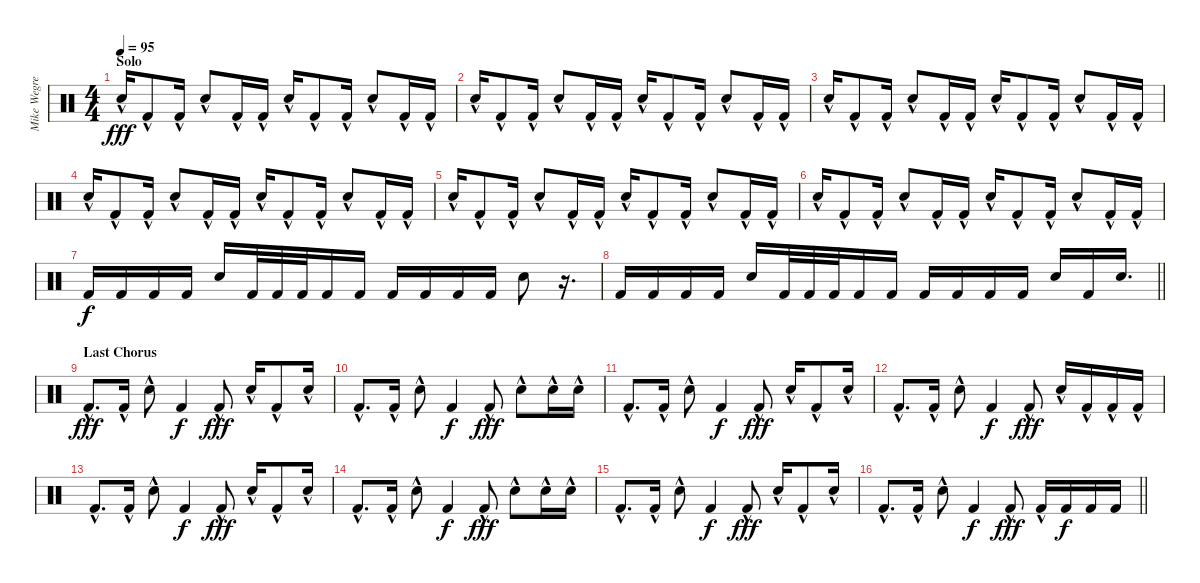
\track ("Mike Wegren 2" "Mike Wegre") {instrument percussion}
\staff {score}
\articulation defaults
\ts (4 4)
\section ("" "Solo")
\tempo 95
\clef neutral
\ks c "Snare (hit) 2"{hac}.16{dy fff} "Kick (hit) 2"{hac}.8 "Kick (hit) 2"{hac}.16 "Snare (hit) 2"{hac}.8 "Kick (hit) 2"{hac}.16 "Kick (hit) 2"{hac}.16 "Snare (hit) 2"{hac}.16 "Kick (hit) 2"{hac}.8 "Kick (hit) 2"{hac}.16 "Snare (hit) 2"{hac}.8 "Kick (hit) 2"{hac}.16 "Kick (hit) 2"{hac}.16
|
"Snare (hit) 2"{hac}.16 "Kick (hit) 2"{hac}.8 "Kick (hit) 2"{hac}.16 "Snare (hit) 2"{hac}.8 "Kick (hit) 2"{hac}.16 "Kick (hit) 2"{hac}.16 "Snare (hit) 2"{hac}.16 "Kick (hit) 2"{hac}.8 "Kick (hit) 2"{hac}.16 "Snare (hit) 2"{hac}.8 "Kick (hit) 2"{hac}.16 "Kick (hit) 2"{hac}.16 |
"Snare (hit) 2"{hac}.16 "Kick (hit) 2"{hac}.8 "Kick (hit) 2"{hac}.16 "Snare (hit) 2"{hac}.8 "Kick (hit) 2"{hac}.16 "Kick (hit) 2"{hac}.16 "Snare (hit) 2"{hac}.16 "Kick (hit) 2"{hac}.8 "Kick (hit) 2"{hac}.16 "Snare (hit) 2"{hac}.8 "Kick (hit) 2"{hac}.16 "Kick (hit) 2"{hac}.16 |
"Snare (hit) 2"{hac}.16 "Kick (hit) 2"{hac}.8 "Kick (hit) 2"{hac}.16 "Snare (hit) 2"{hac}.8 "Kick (hit) 2"{hac}.16 "Kick (hit) 2"{hac}.16 "Snare (hit) 2"{hac}.16 "Kick (hit) 2"{hac}.8 "Kick (hit) 2"{hac}.16 "Snare (hit) 2"{hac}.8 "Kick (hit) 2"{hac}.16 "Kick (hit) 2"{hac}.16 |
"Snare (hit) 2"{hac}.16 "Kick (hit) 2"{hac}.8 "Kick (hit) 2"{hac}.16 "Snare (hit) 2"{hac}.8 "Kick (hit) 2"{hac}.16 "Kick (hit) 2"{hac}.16 "Snare (hit) 2"{hac}.16 "Kick (hit) 2"{hac}.8 "Kick (hit) 2"{hac}.16 "Snare (hit) 2"{hac}.8 "Kick (hit) 2"{hac}.16 "Kick (hit) 2"{hac}.16 |
"Snare (hit) 2"{hac}.16 "Kick (hit) 2"{hac}.8 "Kick (hit) 2"{hac}.16 "Snare (hit) 2"{hac}.8 "Kick (hit) 2"{hac}.16 "Kick (hit) 2"{hac}.16 "Snare (hit) 2"{hac}.16 "Kick (hit) 2"{hac}.8 "Kick (hit) 2"{hac}.16 "Snare (hit) 2"{hac}.8 "Kick (hit) 2"{hac}.16 "Kick (hit) 2"{hac}.16 |
"Kick (hit) 2".16{dy f} "Kick (hit) 2".16 "Kick (hit) 2".16 "Kick (hit) 2".16 "Snare (hit) 2".16 "Kick (hit) 2".32 "Kick (hit) 2".32 "Kick (hit) 2".32 "Kick (hit) 2".16 "Kick (hit) 2".16 "Kick (hit) 2".16 "Kick (hit) 2".16 "Kick (hit) 2".16 "Kick (hit) 2".16 "Snare (hit) 2".8 r.16{d} |
\barLineRight lightlight "Kick (hit) 2".16 "Kick (hit) 2".16 "Kick (hit) 2".16 "Kick (hit) 2".16 "Snare (hit) 2".16 "Kick (hit) 2".32 "Kick (hit) 2".32 "Kick (hit) 2".32 "Kick (hit) 2".16 "Kick (hit) 2".16 "Kick (hit) 2".16 "Kick (hit) 2".16 "Kick (hit) 2".16 "Kick (hit) 2".16 "Snare (hit) 2".16 "Kick (hit) 2".16 "Snare (hit) 2".16{d}
|
\section ("" "Last Chorus")
"Kick (hit) 2"{hac}.8{d dy fff} "Kick (hit) 2"{hac}.16 "Snare (hit) 2"{hac}.8 "Kick (hit) 2".4{dy f} "Kick (hit) 2"{hac}.8{dy fff} "Snare (hit) 2"{hac}.16 "Kick (hit) 2"{hac}.8 "Snare (hit) 2"{hac}.16 |
"Kick (hit) 2"{hac}.8{d} "Kick (hit) 2"{hac}.16 "Snare (hit) 2"{hac}.8 "Kick (hit) 2".4{dy f} "Kick (hit) 2"{hac}.8{dy fff} "Snare (hit) 2"{hac}.8 "Snare (hit) 2"{hac}.16 "Snare (hit) 2"{hac}.16 |
"Kick (hit) 2"{hac}.8{d} "Kick (hit) 2"{hac}.16 "Snare (hit) 2"{hac}.8 "Kick (hit) 2".4{dy f} "Kick (hit) 2"{hac}.8{dy fff} "Snare (hit) 2"{hac}.16 "Kick (hit) 2"{hac}.8 "Snare (hit) 2"{hac}.16 |
"Kick (hit) 2"{hac}.8{d} "Kick (hit) 2"{hac}.16 "Snare (hit) 2"{hac}.8 "Kick (hit) 2".4{dy f} "Kick (hit) 2"{hac}.8{dy fff} "Snare (hit) 2"{hac}.16 "Kick (hit) 2"{hac}.16 "Kick (hit) 2"{hac}.16 "Kick (hit) 2"{hac}.16 |
"Kick (hit) 2"{hac}.8{d} "Kick (hit) 2"{hac}.16 "Snare (hit) 2"{hac}.8 "Kick (hit) 2".4{dy f} "Kick (hit) 2"{hac}.8{dy fff} "Snare (hit) 2"{hac}.16 "Kick (hit) 2"{hac}.8 "Snare (hit) 2"{hac}.16 |
"Kick (hit) 2"{hac}.8{d} "Kick (hit) 2"{hac}.16 "Snare (hit) 2"{hac}.8 "Kick (hit) 2".4{dy f} "Kick (hit) 2"{hac}.8{dy fff} "Snare (hit) 2"{hac}.8 "Snare (hit) 2"{hac}.16 "Snare (hit) 2"{hac}.16 |
"Kick (hit) 2"{hac}.8{d} "Kick (hit) 2"{hac}.16 "Snare (hit) 2"{hac}.8 "Kick (hit) 2".4{dy f} "Kick (hit) 2"{hac}.8{dy fff} "Snare (hit) 2"{hac}.16 "Kick (hit) 2"{hac}.8 "Snare (hit) 2"{hac}.16 |
\barLineRight lightlight "Kick (hit) 2"{hac}.8{d} "Kick (hit) 2"{hac}.16 "Snare (hit) 2"{hac}.8 "Kick (hit) 2".4{dy f} "Kick (hit) 2"{hac}.8{dy fff} "Kick (hit) 2"{hac}.16 "Kick (hit) 2".16{dy f} "Kick (hit) 2".16 "Kick (hit) 2".16
